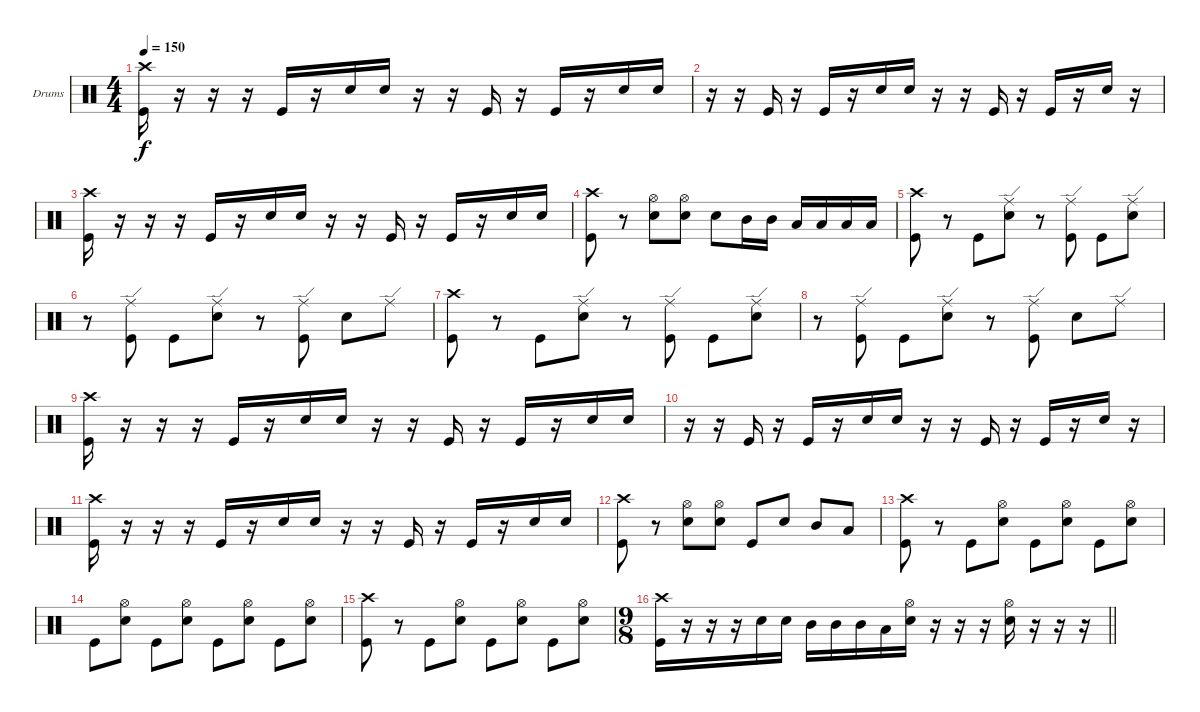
\bracketExtendMode nobrackets
\firstSystemTrackNameOrientation horizontal
\otherSystemsTrackNameOrientation horizontal
\track ("Drumkit" "Drums") {instrument percussion}
\staff {score}
\articulation defaults
\ts (4 4)
\tempo 150
\clef neutral
\ks c
("Crash high (hit)" "Kick (hit)").16{dy f} r.16 r.16 r.16 "Kick (hit)".16 r.16 "Snare (hit) 2".16 "Snare (hit) 2".16 r.16 r.16 "Kick (hit)".16 r.16 "Kick (hit)".16 r.16 "Snare (hit) 2".16 "Snare (hit) 2".16 |
r.16 r.16 "Kick (hit)".16 r.16 "Kick (hit)".16 r.16 "Snare (hit) 2".16 "Snare (hit) 2".16 r.16 r.16 "Kick (hit)".16 r.16 "Kick (hit)".16 r.16 "Snare (hit) 2".16 r.16 |
("Crash high (hit)" "Kick (hit)").16 r.16 r.16 r.16 "Kick (hit)".16 r.16 "Snare (hit) 2".16 "Snare (hit) 2".16 r.16 r.16 "Kick (hit)".16 r.16 "Kick (hit)".16 r.16 "Snare (hit) 2".16 "Snare (hit) 2".16 |
("Crash high (hit)" "Kick (hit)").8 r.8 ("Hi-Hat (open)" "Snare (hit) 2").8 ("Hi-Hat (open)" "Snare (hit) 2").8 "Snare (hit) 2".8 "Mid Tom (hit)".16 "Mid Tom (hit)".16 "Low Tom (hit)".16 "Low Tom (hit)".16 "Low Tom (hit)".16 "Low Tom (hit)".16 |
("Crash high (hit)" "Kick (hit)").8 r.8 "Kick (hit)".8 ("Ride (edge)" "Snare (hit) 2").8 r.8 ("Ride (edge)" "Kick (hit)").8 "Kick (hit)".8 ("Ride (edge)" "Snare (hit) 2").8 |
r.8 ("Ride (edge)" "Kick (hit)").8 "Kick (hit)".8 ("Ride (edge)" "Snare (hit) 2").8 r.8 ("Ride (edge)" "Kick (hit)").8 "Snare (hit) 2".8 "Ride (edge)".8 |
("Crash high (hit)" "Kick (hit)").8 r.8 "Kick (hit)".8 ("Ride (edge)" "Snare (hit) 2").8 r.8 ("Ride (edge)" "Kick (hit)").8 "Kick (hit)".8 ("Ride (edge)" "Snare (hit) 2").8 |
r.8 ("Ride (edge)" "Kick (hit)").8 "Kick (hit)".8 ("Ride (edge)" "Snare (hit) 2").8 r.8 ("Ride (edge)" "Kick (hit)").8 "Snare (hit) 2".8 "Ride (edge)".8 |
("Crash high (hit)" "Kick (hit)").16 r.16 r.16 r.16 "Kick (hit)".16 r.16 "Snare (hit) 2".16 "Snare (hit) 2".16 r.16 r.16 "Kick (hit)".16 r.16 "Kick (hit)".16 r.16 "Snare (hit) 2".16 "Snare (hit) 2".16 |
r.16 r.16 "Kick (hit)".16 r.16 "Kick (hit)".16 r.16 "Snare (hit) 2".16 "Snare (hit) 2".16 r.16 r.16 "Kick (hit)".16 r.16 "Kick (hit)".16 r.16 "Snare (hit) 2".16 r.16 |
("Crash high (hit)" "Kick (hit)").16 r.16 r.16 r.16 "Kick (hit)".16 r.16 "Snare (hit) 2".16 "Snare (hit) 2".16 r.16 r.16 "Kick (hit)".16 r.16 "Kick (hit)".16 r.16 "Snare (hit) 2".16 "Snare (hit) 2".16 |
("Crash high (hit)" "Kick (hit)").8 r.8 ("Hi-Hat (open)" "Snare (hit) 2").8 ("Hi-Hat (open)" "Snare (hit) 2").8 "Kick (hit)".8 "Snare (hit) 2".8 "Mid Tom (hit)".8 "Low Tom (hit)".8 |
("Crash high (hit)" "Kick (hit)").8 r.8 "Kick (hit)".8 ("Hi-Hat (open)" "Snare (hit) 2").8 "Kick (hit)".8 ("Hi-Hat (open)" "Snare (hit) 2").8 "Kick (hit)".8 ("Hi-Hat (open)" "Snare (hit) 2").8 |
"Kick (hit)".8 ("Hi-Hat (open)" "Snare (hit) 2").8 "Kick (hit)".8 ("Hi-Hat (open)" "Snare (hit) 2").8 "Kick (hit)".8 ("Hi-Hat (open)" "Snare (hit) 2").8 "Kick (hit)".8 ("Hi-Hat (open)" "Snare (hit) 2").8 |
("Crash high (hit)" "Kick (hit)").8 r.8 "Kick (hit)".8 ("Hi-Hat (open)" "Snare (hit) 2").8 "Kick (hit)".8 ("Hi-Hat (open)" "Snare (hit) 2").8 "Kick (hit)".8 ("Hi-Hat (open)" "Snare (hit) 2").8 |
\ts (9 8)
\beaming (8 3 3 3)
\barLineRight lightlight
("Crash high (hit)" "Kick (hit)").16 r.16 r.16 r.16 "Snare (hit) 2".16 "Snare (hit) 2".16 "Mid Tom (hit)".16 "Mid Tom (hit)".16 "Mid Tom (hit)".16 "Low Tom (hit)".16 ("Hi-Hat (open)" "Snare (hit) 2").16 r.16 r.16 r.16 ("Hi-Hat (open)" "Snare (hit) 2").16 r.16 r.16 r.16
